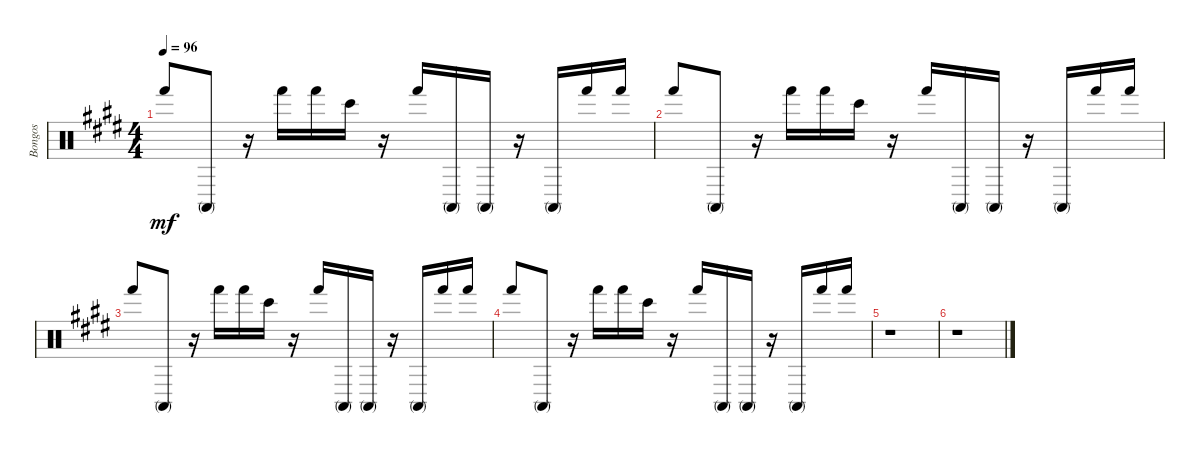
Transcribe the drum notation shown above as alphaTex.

\track ("Bongos" "Bongos") {instrument percussion}
\staff {score}
\articulation defaults
\ts (4 4)
\tempo 96
\clef neutral
\ks e "Hand (hit)".8{dy mf} "Conga high (mute)".8
r.16 "Hand (hit)".16 "Hand (hit)".16 "Bongo High (hit)".16 r.16 "Hand (hit)".16 "Conga high (mute)".16 "Conga high (mute)".16 r.16 "Conga high (mute)".16 "Hand (hit)".16 "Hand (hit)".16 |
"Hand (hit)".8 "Conga high (mute)".8 r.16 "Hand (hit)".16 "Hand (hit)".16 "Bongo High (hit)".16 r.16 "Hand (hit)".16 "Conga high (mute)".16 "Conga high (mute)".16 r.16 "Conga high (mute)".16 "Hand (hit)".16 "Hand (hit)".16 |
"Hand (hit)".8 "Conga high (mute)".8 r.16 "Hand (hit)".16 "Hand (hit)".16 "Bongo High (hit)".16 r.16 "Hand (hit)".16 "Conga high (mute)".16 "Conga high (mute)".16 r.16 "Conga high (mute)".16 "Hand (hit)".16 "Hand (hit)".16 |
"Hand (hit)".8 "Conga high (mute)".8 r.16 "Hand (hit)".16 "Hand (hit)".16 "Bongo High (hit)".16 r.16 "Hand (hit)".16 "Conga high (mute)".16 "Conga high (mute)".16 r.16 "Conga high (mute)".16 "Hand (hit)".16 "Hand (hit)".16 |
r.1 |
r.1
